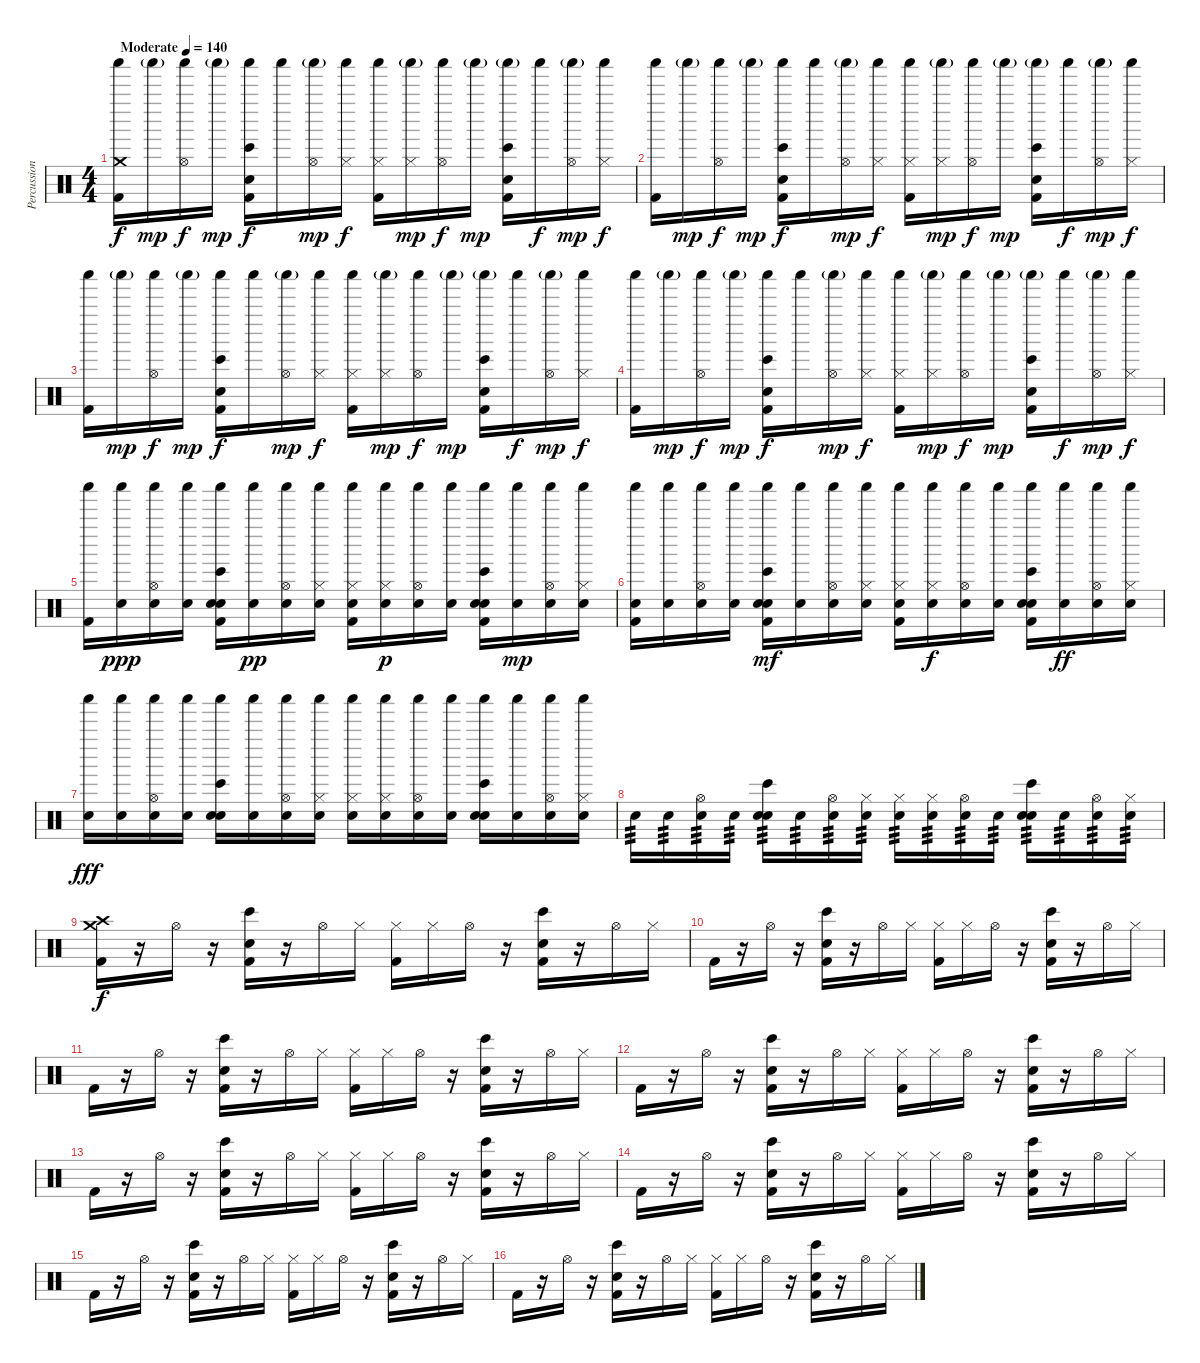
\track ("Percussion" "Percussion") {instrument percussion}
\staff {score}
\articulation defaults
\ts (4 4)
\tempo (140 "Moderate")
\clef neutral
\ks c
("Shaker (hit)" "Crash medium (hit)" "Kick (hit) 2").16{dy f} "Shaker (hit)"{g}.16{dy mp} ("Shaker (hit)" "Hi-Hat (open)").16{dy f} "Shaker (hit)"{g}.16{dy mp} ("Shaker (hit)" "Hand Clap (hit)" "Bongo High (hit)" "Kick (hit) 2").16{dy f} "Shaker (hit)".16 ("Shaker (hit)"{g} "Hi-Hat (open)").16{dy mp} ("Shaker (hit)" "Hi-Hat (closed)").16{dy f} ("Shaker (hit)" "Hi-Hat (closed)" "Kick (hit) 2").16 ("Shaker (hit)"{g} "Hi-Hat (closed)").16{dy mp} ("Shaker (hit)" "Hi-Hat (open)").16{dy f} "Shaker (hit)"{g}.16{dy mp} ("Shaker (hit)"{g} "Hand Clap (hit)" "Bongo High (hit)" "Kick (hit) 2").16 "Shaker (hit)".16{dy f} ("Shaker (hit)"{g} "Hi-Hat (open)").16{dy mp} ("Shaker (hit)" "Hi-Hat (closed)").16{dy f} |
("Shaker (hit)" "Kick (hit) 2").16 "Shaker (hit)"{g}.16{dy mp} ("Shaker (hit)" "Hi-Hat (open)").16{dy f} "Shaker (hit)"{g}.16{dy mp} ("Shaker (hit)" "Hand Clap (hit)" "Bongo High (hit)" "Kick (hit) 2").16{dy f} "Shaker (hit)".16 ("Shaker (hit)"{g} "Hi-Hat (open)").16{dy mp} ("Shaker (hit)" "Hi-Hat (closed)").16{dy f} ("Shaker (hit)" "Hi-Hat (closed)" "Kick (hit) 2").16 ("Shaker (hit)"{g} "Hi-Hat (closed)").16{dy mp} ("Shaker (hit)" "Hi-Hat (open)").16{dy f} "Shaker (hit)"{g}.16{dy mp} ("Shaker (hit)"{g} "Hand Clap (hit)" "Bongo High (hit)" "Kick (hit) 2").16 "Shaker (hit)".16{dy f} ("Shaker (hit)"{g} "Hi-Hat (open)").16{dy mp} ("Shaker (hit)" "Hi-Hat (closed)").16{dy f} |
("Shaker (hit)" "Kick (hit) 2").16 "Shaker (hit)"{g}.16{dy mp} ("Shaker (hit)" "Hi-Hat (open)").16{dy f} "Shaker (hit)"{g}.16{dy mp} ("Shaker (hit)" "Hand Clap (hit)" "Bongo High (hit)" "Kick (hit) 2").16{dy f} "Shaker (hit)".16 ("Shaker (hit)"{g} "Hi-Hat (open)").16{dy mp} ("Shaker (hit)" "Hi-Hat (closed)").16{dy f} ("Shaker (hit)" "Hi-Hat (closed)" "Kick (hit) 2").16 ("Shaker (hit)"{g} "Hi-Hat (closed)").16{dy mp} ("Shaker (hit)" "Hi-Hat (open)").16{dy f} "Shaker (hit)"{g}.16{dy mp} ("Shaker (hit)"{g} "Hand Clap (hit)" "Bongo High (hit)" "Kick (hit) 2").16 "Shaker (hit)".16{dy f} ("Shaker (hit)"{g} "Hi-Hat (open)").16{dy mp} ("Shaker (hit)" "Hi-Hat (closed)").16{dy f} |
("Shaker (hit)" "Kick (hit) 2").16 "Shaker (hit)"{g}.16{dy mp} ("Shaker (hit)" "Hi-Hat (open)").16{dy f} "Shaker (hit)"{g}.16{dy mp} ("Shaker (hit)" "Hand Clap (hit)" "Bongo High (hit)" "Kick (hit) 2").16{dy f} "Shaker (hit)".16 ("Shaker (hit)"{g} "Hi-Hat (open)").16{dy mp} ("Shaker (hit)" "Hi-Hat (closed)").16{dy f} ("Shaker (hit)" "Hi-Hat (closed)" "Kick (hit) 2").16 ("Shaker (hit)"{g} "Hi-Hat (closed)").16{dy mp} ("Shaker (hit)" "Hi-Hat (open)").16{dy f} "Shaker (hit)"{g}.16{dy mp} ("Shaker (hit)"{g} "Hand Clap (hit)" "Bongo High (hit)" "Kick (hit) 2").16 "Shaker (hit)".16{dy f} ("Shaker (hit)"{g} "Hi-Hat (open)").16{dy mp} ("Shaker (hit)" "Hi-Hat (closed)").16{dy f} |
("Shaker (hit)" "Kick (hit) 2").16 ("Shaker (hit)" "Snare (hit) 2").16{dy ppp} ("Shaker (hit)" "Hi-Hat (open)" "Snare (hit) 2").16 ("Shaker (hit)" "Snare (hit) 2").16 ("Shaker (hit)" "Hand Clap (hit)" "Bongo High (hit)" "Snare (hit) 2" "Kick (hit) 2").16 ("Shaker (hit)" "Snare (hit) 2").16{dy pp} ("Shaker (hit)" "Hi-Hat (open)" "Snare (hit) 2").16 ("Shaker (hit)" "Hi-Hat (closed)" "Snare (hit) 2").16 ("Shaker (hit)" "Hi-Hat (closed)" "Snare (hit) 2" "Kick (hit) 2").16 ("Shaker (hit)" "Hi-Hat (closed)" "Snare (hit) 2").16{dy p} ("Shaker (hit)" "Hi-Hat (open)" "Snare (hit) 2").16 ("Shaker (hit)" "Snare (hit) 2").16 ("Shaker (hit)" "Hand Clap (hit)" "Bongo High (hit)" "Snare (hit) 2" "Kick (hit) 2").16 ("Shaker (hit)" "Snare (hit) 2").16{dy mp} ("Shaker (hit)" "Hi-Hat (open)" "Snare (hit) 2").16 ("Shaker (hit)" "Hi-Hat (closed)" "Snare (hit) 2").16 |
("Shaker (hit)" "Snare (hit) 2" "Kick (hit) 2").16 ("Shaker (hit)" "Snare (hit) 2").16 ("Shaker (hit)" "Hi-Hat (open)" "Snare (hit) 2").16 ("Shaker (hit)" "Snare (hit) 2").16 ("Shaker (hit)" "Hand Clap (hit)" "Bongo High (hit)" "Snare (hit) 2" "Kick (hit) 2").16{dy mf} ("Shaker (hit)" "Snare (hit) 2").16 ("Shaker (hit)" "Hi-Hat (open)" "Snare (hit) 2").16 ("Shaker (hit)" "Hi-Hat (closed)" "Snare (hit) 2").16 ("Shaker (hit)" "Hi-Hat (closed)" "Snare (hit) 2" "Kick (hit) 2").16 ("Shaker (hit)" "Hi-Hat (closed)" "Snare (hit) 2").16{dy f} ("Shaker (hit)" "Hi-Hat (open)" "Snare (hit) 2").16 ("Shaker (hit)" "Snare (hit) 2").16 ("Shaker (hit)" "Hand Clap (hit)" "Bongo High (hit)" "Snare (hit) 2" "Kick (hit) 2").16 ("Shaker (hit)" "Snare (hit) 2").16{dy ff} ("Shaker (hit)" "Hi-Hat (open)" "Snare (hit) 2").16 ("Shaker (hit)" "Hi-Hat (closed)" "Snare (hit) 2").16 |
("Shaker (hit)" "Snare (hit) 2").16{dy fff} ("Shaker (hit)" "Snare (hit) 2").16 ("Shaker (hit)" "Hi-Hat (open)" "Snare (hit) 2").16 ("Shaker (hit)" "Snare (hit) 2").16 ("Shaker (hit)" "Hand Clap (hit)" "Bongo High (hit)" "Snare (hit) 2").16 ("Shaker (hit)" "Snare (hit) 2").16 ("Shaker (hit)" "Hi-Hat (open)" "Snare (hit) 2").16 ("Shaker (hit)" "Hi-Hat (closed)" "Snare (hit) 2").16 ("Shaker (hit)" "Hi-Hat (closed)" "Snare (hit) 2").16 ("Shaker (hit)" "Hi-Hat (closed)" "Snare (hit) 2").16 ("Shaker (hit)" "Hi-Hat (open)" "Snare (hit) 2").16 ("Shaker (hit)" "Snare (hit) 2").16 ("Shaker (hit)" "Hand Clap (hit)" "Bongo High (hit)" "Snare (hit) 2").16 ("Shaker (hit)" "Snare (hit) 2").16 ("Shaker (hit)" "Hi-Hat (open)" "Snare (hit) 2").16 ("Shaker (hit)" "Hi-Hat (closed)" "Snare (hit) 2").16 |
"Snare (hit) 2".16{tp 3} "Snare (hit) 2".16{tp 3} ("Hi-Hat (open)" "Snare (hit) 2").16{tp 3} "Snare (hit) 2".16{tp 3} ("Hand Clap (hit)" "Bongo High (hit)" "Snare (hit) 2").16{tp 3} "Snare (hit) 2".16{tp 3} ("Hi-Hat (open)" "Snare (hit) 2").16{tp 3} ("Hi-Hat (closed)" "Snare (hit) 2").16{tp 3} ("Hi-Hat (closed)" "Snare (hit) 2").16{tp 3} ("Hi-Hat (closed)" "Snare (hit) 2").16{tp 3} ("Hi-Hat (open)" "Snare (hit) 2").16{tp 3} "Snare (hit) 2".16{tp 3} ("Hand Clap (hit)" "Bongo High (hit)" "Snare (hit) 2").16{tp 3} "Snare (hit) 2".16{tp 3} ("Hi-Hat (open)" "Snare (hit) 2").16{tp 3} ("Hi-Hat (closed)" "Snare (hit) 2").16{tp 3} |
("Crash high (hit)" "Crash medium (hit)" "Kick (hit) 2").16{dy f} r.16 "Hi-Hat (open)".16 r.16 ("Hand Clap (hit)" "Bongo High (hit)" "Kick (hit) 2").16 r.16 "Hi-Hat (open)".16 "Hi-Hat (closed)".16 ("Hi-Hat (closed)" "Kick (hit) 2").16 "Hi-Hat (closed)".16 "Hi-Hat (open)".16 r.16 ("Hand Clap (hit)" "Bongo High (hit)" "Kick (hit) 2").16 r.16 "Hi-Hat (open)".16 "Hi-Hat (closed)".16 |
"Kick (hit) 2".16 r.16 "Hi-Hat (open)".16 r.16 ("Hand Clap (hit)" "Bongo High (hit)" "Kick (hit) 2").16 r.16 "Hi-Hat (open)".16 "Hi-Hat (closed)".16 ("Hi-Hat (closed)" "Kick (hit) 2").16 "Hi-Hat (closed)".16 "Hi-Hat (open)".16 r.16 ("Hand Clap (hit)" "Bongo High (hit)" "Kick (hit) 2").16 r.16 "Hi-Hat (open)".16 "Hi-Hat (closed)".16 |
"Kick (hit) 2".16 r.16 "Hi-Hat (open)".16 r.16 ("Hand Clap (hit)" "Bongo High (hit)" "Kick (hit) 2").16 r.16 "Hi-Hat (open)".16 "Hi-Hat (closed)".16 ("Hi-Hat (closed)" "Kick (hit) 2").16 "Hi-Hat (closed)".16 "Hi-Hat (open)".16 r.16 ("Hand Clap (hit)" "Bongo High (hit)" "Kick (hit) 2").16 r.16 "Hi-Hat (open)".16 "Hi-Hat (closed)".16 |
"Kick (hit) 2".16 r.16 "Hi-Hat (open)".16 r.16 ("Hand Clap (hit)" "Bongo High (hit)" "Kick (hit) 2").16 r.16 "Hi-Hat (open)".16 "Hi-Hat (closed)".16 ("Hi-Hat (closed)" "Kick (hit) 2").16 "Hi-Hat (closed)".16 "Hi-Hat (open)".16 r.16 ("Hand Clap (hit)" "Bongo High (hit)" "Kick (hit) 2").16 r.16 "Hi-Hat (open)".16 "Hi-Hat (closed)".16 |
"Kick (hit) 2".16 r.16 "Hi-Hat (open)".16 r.16 ("Hand Clap (hit)" "Bongo High (hit)" "Kick (hit) 2").16 r.16 "Hi-Hat (open)".16 "Hi-Hat (closed)".16 ("Hi-Hat (closed)" "Kick (hit) 2").16 "Hi-Hat (closed)".16 "Hi-Hat (open)".16 r.16 ("Hand Clap (hit)" "Bongo High (hit)" "Kick (hit) 2").16 r.16 "Hi-Hat (open)".16 "Hi-Hat (closed)".16 |
"Kick (hit) 2".16 r.16 "Hi-Hat (open)".16 r.16 ("Hand Clap (hit)" "Bongo High (hit)" "Kick (hit) 2").16 r.16 "Hi-Hat (open)".16 "Hi-Hat (closed)".16 ("Hi-Hat (closed)" "Kick (hit) 2").16 "Hi-Hat (closed)".16 "Hi-Hat (open)".16 r.16 ("Hand Clap (hit)" "Bongo High (hit)" "Kick (hit) 2").16 r.16 "Hi-Hat (open)".16 "Hi-Hat (closed)".16 |
"Kick (hit) 2".16 r.16 "Hi-Hat (open)".16 r.16 ("Hand Clap (hit)" "Bongo High (hit)" "Kick (hit) 2").16 r.16 "Hi-Hat (open)".16 "Hi-Hat (closed)".16 ("Hi-Hat (closed)" "Kick (hit) 2").16 "Hi-Hat (closed)".16 "Hi-Hat (open)".16 r.16 ("Hand Clap (hit)" "Bongo High (hit)" "Kick (hit) 2").16 r.16 "Hi-Hat (open)".16 "Hi-Hat (closed)".16 |
"Kick (hit) 2".16 r.16 "Hi-Hat (open)".16 r.16 ("Hand Clap (hit)" "Bongo High (hit)" "Kick (hit) 2").16 r.16 "Hi-Hat (open)".16 "Hi-Hat (closed)".16 ("Hi-Hat (closed)" "Kick (hit) 2").16 "Hi-Hat (closed)".16 "Hi-Hat (open)".16 r.16 ("Hand Clap (hit)" "Bongo High (hit)" "Kick (hit) 2").16 r.16 "Hi-Hat (open)".16 "Hi-Hat (closed)".16
